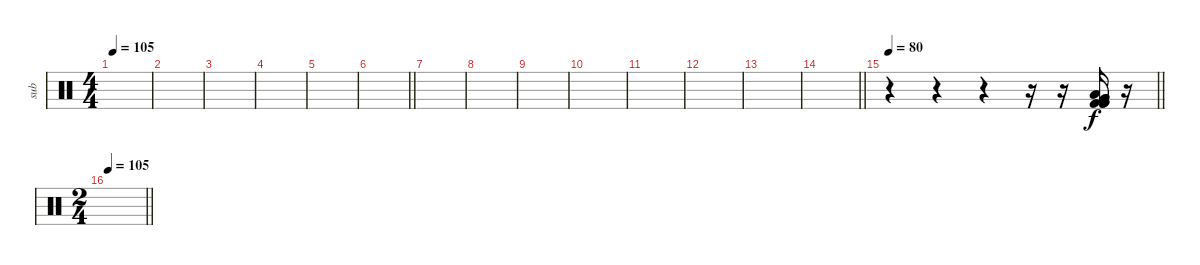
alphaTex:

\track ("sub" "sub") {instrument percussion}
\staff {score}
\articulation defaults
\ts (4 4)
\tempo 105
\clef neutral
\ks c
|
|
|
|
|
\barLineRight lightlight
|
\section ("" "")
|
|
|
|
|
|
|
\barLineRight lightlight
|
\section ("" "")
\tempo 80
\barLineRight lightlight
r.4 r.4 r.4 r.16 r.16 ("Low Floor Tom (hit)" "Kick (hit) 2" "Very Low Tom (hit)" "Very Low Tom (hit)" "Kick (hit) 2" "Kick (hit) 2").16 r.16 |
\ts (2 4)
\tempo 105
\barLineRight lightlight
